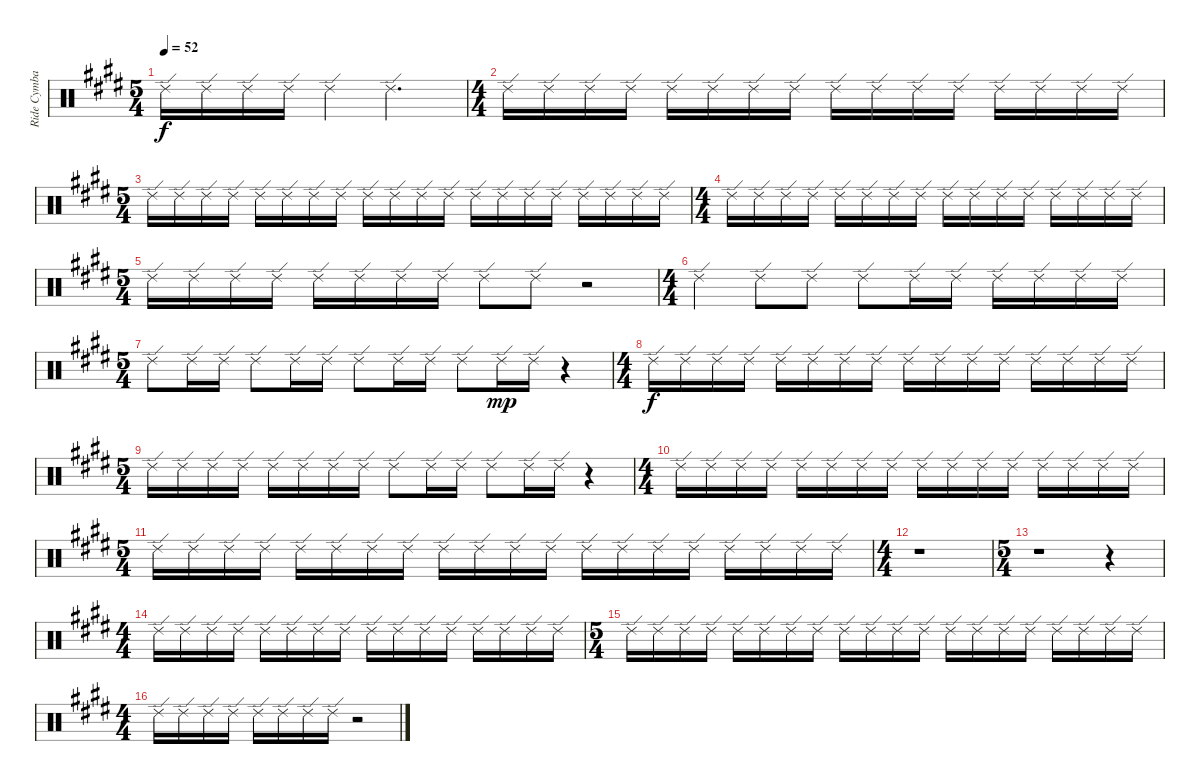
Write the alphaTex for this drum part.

\track ("Ride Cymbal" "Ride Cymba") {instrument percussion}
\staff {score}
\articulation defaults
\ts (5 4)
\tempo 52
\clef neutral
\ks e "Ride (edge) 2".16{dy f} "Ride (edge) 2".16 "Ride (edge) 2".16 "Ride (edge) 2".16 "Ride (edge) 2".4 "Ride (edge) 2".2{d}
|
\ts (4 4)
"Ride (edge) 2".16 "Ride (edge) 2".16 "Ride (edge) 2".16 "Ride (edge) 2".16 "Ride (edge) 2".16 "Ride (edge) 2".16 "Ride (edge) 2".16 "Ride (edge) 2".16 "Ride (edge) 2".16 "Ride (edge) 2".16 "Ride (edge) 2".16 "Ride (edge) 2".16 "Ride (edge) 2".16 "Ride (edge) 2".16 "Ride (edge) 2".16 "Ride (edge) 2".16 |
\ts (5 4)
"Ride (edge) 2".16 "Ride (edge) 2".16 "Ride (edge) 2".16 "Ride (edge) 2".16 "Ride (edge) 2".16 "Ride (edge) 2".16 "Ride (edge) 2".16 "Ride (edge) 2".16 "Ride (edge) 2".16 "Ride (edge) 2".16 "Ride (edge) 2".16 "Ride (edge) 2".16 "Ride (edge) 2".16 "Ride (edge) 2".16 "Ride (edge) 2".16 "Ride (edge) 2".16 "Ride (edge) 2".16 "Ride (edge) 2".16 "Ride (edge) 2".16 "Ride (edge) 2".16 |
\ts (4 4)
"Ride (edge) 2".16 "Ride (edge) 2".16 "Ride (edge) 2".16 "Ride (edge) 2".16 "Ride (edge) 2".16 "Ride (edge) 2".16 "Ride (edge) 2".16 "Ride (edge) 2".16 "Ride (edge) 2".16 "Ride (edge) 2".16 "Ride (edge) 2".16 "Ride (edge) 2".16 "Ride (edge) 2".16 "Ride (edge) 2".16 "Ride (edge) 2".16 "Ride (edge) 2".16 |
\ts (5 4)
"Ride (edge) 2".16 "Ride (edge) 2".16 "Ride (edge) 2".16 "Ride (edge) 2".16 "Ride (edge) 2".16 "Ride (edge) 2".16 "Ride (edge) 2".16 "Ride (edge) 2".16 "Ride (edge) 2".8 "Ride (edge) 2".8 r.2 |
\ts (4 4)
"Ride (edge) 2".4 "Ride (edge) 2".8 "Ride (edge) 2".8 "Ride (edge) 2".8 "Ride (edge) 2".16 "Ride (edge) 2".16 "Ride (edge) 2".16 "Ride (edge) 2".16 "Ride (edge) 2".16 "Ride (edge) 2".16 |
\ts (5 4)
"Ride (edge) 2".8 "Ride (edge) 2".16 "Ride (edge) 2".16 "Ride (edge) 2".8 "Ride (edge) 2".16 "Ride (edge) 2".16 "Ride (edge) 2".8 "Ride (edge) 2".16 "Ride (edge) 2".16 "Ride (edge) 2".8 "Ride (edge) 2".16{dy mp} "Ride (edge) 2".16 r.4 |
\ts (4 4)
"Ride (edge) 2".16{dy f} "Ride (edge) 2".16 "Ride (edge) 2".16 "Ride (edge) 2".16 "Ride (edge) 2".16 "Ride (edge) 2".16 "Ride (edge) 2".16 "Ride (edge) 2".16 "Ride (edge) 2".16 "Ride (edge) 2".16 "Ride (edge) 2".16 "Ride (edge) 2".16 "Ride (edge) 2".16 "Ride (edge) 2".16 "Ride (edge) 2".16 "Ride (edge) 2".16 |
\ts (5 4)
"Ride (edge) 2".16 "Ride (edge) 2".16 "Ride (edge) 2".16 "Ride (edge) 2".16 "Ride (edge) 2".16 "Ride (edge) 2".16 "Ride (edge) 2".16 "Ride (edge) 2".16 "Ride (edge) 2".8 "Ride (edge) 2".16 "Ride (edge) 2".16 "Ride (edge) 2".8 "Ride (edge) 2".16 "Ride (edge) 2".16 r.4 |
\ts (4 4)
"Ride (edge) 2".16 "Ride (edge) 2".16 "Ride (edge) 2".16 "Ride (edge) 2".16 "Ride (edge) 2".16 "Ride (edge) 2".16 "Ride (edge) 2".16 "Ride (edge) 2".16 "Ride (edge) 2".16 "Ride (edge) 2".16 "Ride (edge) 2".16 "Ride (edge) 2".16 "Ride (edge) 2".16 "Ride (edge) 2".16 "Ride (edge) 2".16 "Ride (edge) 2".16 |
\ts (5 4)
"Ride (edge) 2".16 "Ride (edge) 2".16 "Ride (edge) 2".16 "Ride (edge) 2".16 "Ride (edge) 2".16 "Ride (edge) 2".16 "Ride (edge) 2".16 "Ride (edge) 2".16 "Ride (edge) 2".16 "Ride (edge) 2".16 "Ride (edge) 2".16 "Ride (edge) 2".16 "Ride (edge) 2".16 "Ride (edge) 2".16 "Ride (edge) 2".16 "Ride (edge) 2".16 "Ride (edge) 2".16 "Ride (edge) 2".16 "Ride (edge) 2".16 "Ride (edge) 2".16 |
\ts (4 4)
r.1 |
\ts (5 4)
r.1 r.4 |
\ts (4 4)
"Ride (edge) 2".16 "Ride (edge) 2".16 "Ride (edge) 2".16 "Ride (edge) 2".16 "Ride (edge) 2".16 "Ride (edge) 2".16 "Ride (edge) 2".16 "Ride (edge) 2".16 "Ride (edge) 2".16 "Ride (edge) 2".16 "Ride (edge) 2".16 "Ride (edge) 2".16 "Ride (edge) 2".16 "Ride (edge) 2".16 "Ride (edge) 2".16 "Ride (edge) 2".16 |
\ts (5 4)
"Ride (edge) 2".16 "Ride (edge) 2".16 "Ride (edge) 2".16 "Ride (edge) 2".16 "Ride (edge) 2".16 "Ride (edge) 2".16 "Ride (edge) 2".16 "Ride (edge) 2".16 "Ride (edge) 2".16 "Ride (edge) 2".16 "Ride (edge) 2".16 "Ride (edge) 2".16 "Ride (edge) 2".16 "Ride (edge) 2".16 "Ride (edge) 2".16 "Ride (edge) 2".16 "Ride (edge) 2".16 "Ride (edge) 2".16 "Ride (edge) 2".16 "Ride (edge) 2".16 |
\ts (4 4)
"Ride (edge) 2".16 "Ride (edge) 2".16 "Ride (edge) 2".16 "Ride (edge) 2".16 "Ride (edge) 2".16 "Ride (edge) 2".16 "Ride (edge) 2".16 "Ride (edge) 2".16 r.2
